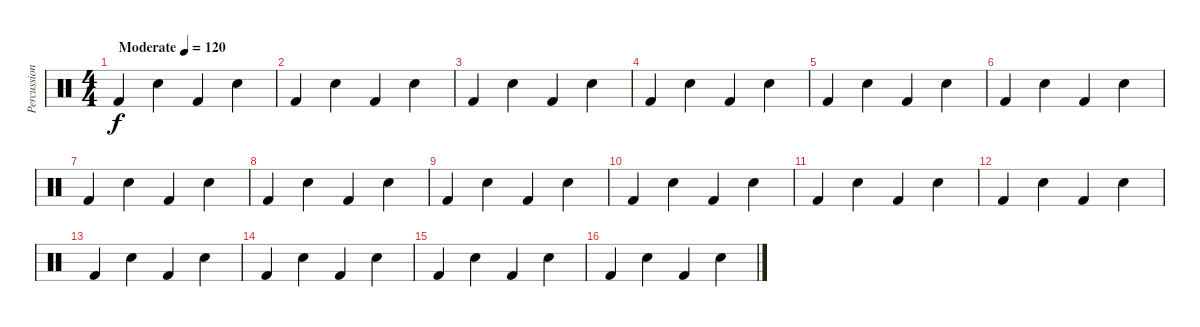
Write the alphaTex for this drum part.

\track ("Percussion" "Percussion") {instrument percussion}
\staff {score}
\articulation defaults
\ts (4 4)
\tempo (120 "Moderate")
\clef neutral
\ks c "Kick (hit) 2".4{dy f} "Snare (hit) 2".4 "Kick (hit) 2".4 "Snare (hit) 2".4
|
"Kick (hit) 2".4 "Snare (hit) 2".4 "Kick (hit) 2".4 "Snare (hit) 2".4 |
"Kick (hit) 2".4 "Snare (hit) 2".4 "Kick (hit) 2".4 "Snare (hit) 2".4 |
"Kick (hit) 2".4 "Snare (hit) 2".4 "Kick (hit) 2".4 "Snare (hit) 2".4 |
"Kick (hit) 2".4 "Snare (hit) 2".4 "Kick (hit) 2".4 "Snare (hit) 2".4 |
"Kick (hit) 2".4 "Snare (hit) 2".4 "Kick (hit) 2".4 "Snare (hit) 2".4 |
"Kick (hit) 2".4 "Snare (hit) 2".4 "Kick (hit) 2".4 "Snare (hit) 2".4 |
"Kick (hit) 2".4 "Snare (hit) 2".4 "Kick (hit) 2".4 "Snare (hit) 2".4 |
"Kick (hit) 2".4 "Snare (hit) 2".4 "Kick (hit) 2".4 "Snare (hit) 2".4 |
"Kick (hit) 2".4 "Snare (hit) 2".4 "Kick (hit) 2".4 "Snare (hit) 2".4 |
"Kick (hit) 2".4 "Snare (hit) 2".4 "Kick (hit) 2".4 "Snare (hit) 2".4 |
"Kick (hit) 2".4 "Snare (hit) 2".4 "Kick (hit) 2".4 "Snare (hit) 2".4 |
"Kick (hit) 2".4 "Snare (hit) 2".4 "Kick (hit) 2".4 "Snare (hit) 2".4 |
"Kick (hit) 2".4 "Snare (hit) 2".4 "Kick (hit) 2".4 "Snare (hit) 2".4 |
"Kick (hit) 2".4 "Snare (hit) 2".4 "Kick (hit) 2".4 "Snare (hit) 2".4 |
"Kick (hit) 2".4 "Snare (hit) 2".4 "Kick (hit) 2".4 "Snare (hit) 2".4
